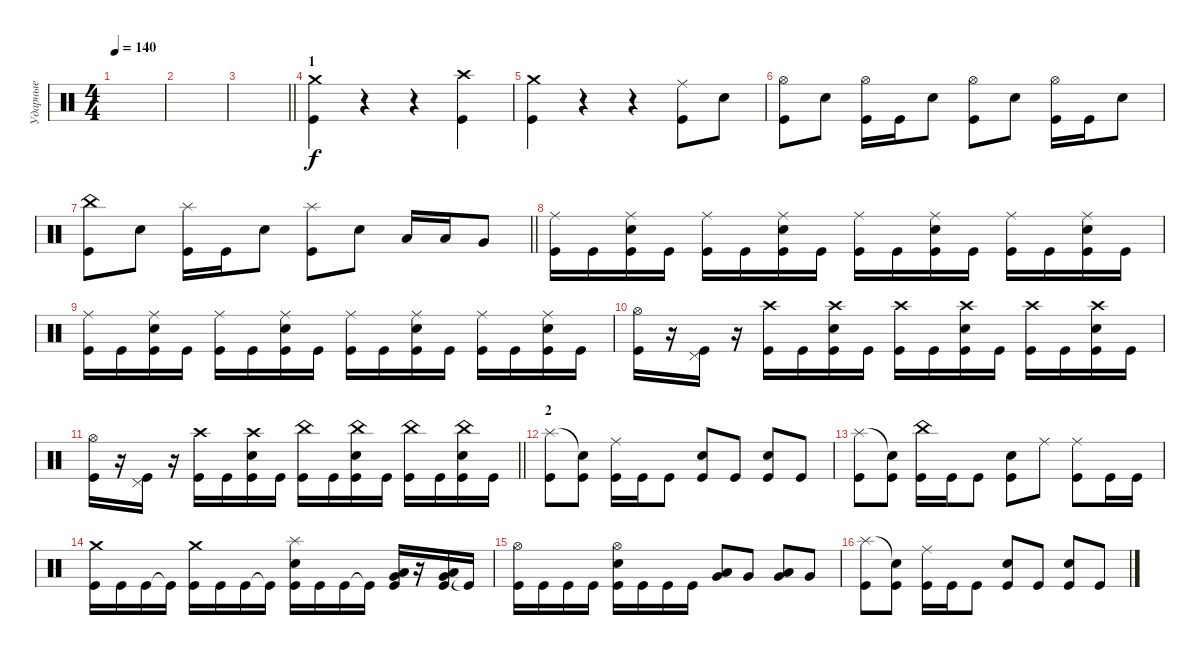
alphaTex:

\track ("Ударные" "Ударные") {instrument percussion}
\staff {score}
\articulation defaults
\ts (4 4)
\tempo 140
\clef neutral
\ks c
|
|
\barLineRight lightlight
|
\section ("" "1")
("Crash medium (hit)" "Kick (hit)").4 r.4 r.4 ("Crash high (hit)" "Kick (hit)").4 |
("Crash medium (hit)" "Kick (hit)").4 r.4 r.4 ("Ride (middle)" "Kick (hit)").8 "Electric Snare (hit)".8 |
("Hi-Hat (open)" "Kick (hit)").8 "Electric Snare (hit)".8 ("Hi-Hat (open)" "Kick (hit)").16 "Kick (hit)".16 "Electric Snare (hit)".8 ("Hi-Hat (open)" "Kick (hit)").8 "Electric Snare (hit)".8 ("Hi-Hat (open)" "Kick (hit)").16 "Kick (hit)".16 "Electric Snare (hit)".8 |
\barLineRight lightlight
("China (hit)" "Kick (hit)").8 "Electric Snare (hit)".8 ("Splash (hit)" "Kick (hit)").16 "Kick (hit)".16 "Electric Snare (hit)".8 ("Splash (hit)" "Kick (hit)").8 "Electric Snare (hit)".8 "Low Tom (hit)".16 "Low Tom (hit)".16 "Very Low Tom (hit)".8 |
("Ride (middle)" "Kick (hit)").16 "Kick (hit)".16 ("Ride (middle)" "Electric Snare (hit)" "Kick (hit)").16 "Kick (hit)".16 ("Ride (middle)" "Kick (hit)").16 "Kick (hit)".16 ("Ride (middle)" "Electric Snare (hit)" "Kick (hit)").16 "Kick (hit)".16 ("Ride (middle)" "Kick (hit)").16 "Kick (hit)".16 ("Ride (middle)" "Electric Snare (hit)" "Kick (hit)").16 "Kick (hit)".16 ("Ride (middle)" "Kick (hit)").16 "Kick (hit)".16 ("Ride (middle)" "Electric Snare (hit)" "Kick (hit)").16 "Kick (hit)".16 |
("Ride (middle)" "Kick (hit)").16 "Kick (hit)".16 ("Ride (middle)" "Electric Snare (hit)" "Kick (hit)").16 "Kick (hit)".16 ("Ride (middle)" "Kick (hit)").16 "Kick (hit)".16 ("Ride (middle)" "Electric Snare (hit)" "Kick (hit)").16 "Kick (hit)".16 ("Ride (middle)" "Kick (hit)").16 "Kick (hit)".16 ("Ride (middle)" "Electric Snare (hit)" "Kick (hit)").16 "Kick (hit)".16 ("Ride (middle)" "Kick (hit)").16 "Kick (hit)".16 ("Ride (middle)" "Electric Snare (hit)" "Kick (hit)").16 "Kick (hit)".16 |
("Hi-Hat (open)" "Kick (hit)").16 r.16 ("Pedal Hi-Hat (hit)" "Kick (hit)").16 r.16 ("Crash high (hit)" "Kick (hit)").16 "Kick (hit)".16 ("Crash high (hit)" "Electric Snare (hit)" "Kick (hit)").16 "Kick (hit)".16 ("Crash high (hit)" "Kick (hit)").16 "Kick (hit)".16 ("Crash high (hit)" "Electric Snare (hit)" "Kick (hit)").16 "Kick (hit)".16 ("Crash high (hit)" "Kick (hit)").16 "Kick (hit)".16 ("Crash high (hit)" "Electric Snare (hit)" "Kick (hit)").16 "Kick (hit)".16 |
\barLineRight lightlight
("Hi-Hat (open)" "Kick (hit)").16 r.16 ("Pedal Hi-Hat (hit)" "Kick (hit)").16 r.16 ("Crash high (hit)" "Kick (hit)").16 "Kick (hit)".16 ("Crash high (hit)" "Electric Snare (hit)" "Kick (hit)").16 "Kick (hit)".16 ("China (hit)" "Kick (hit)").16 "Kick (hit)".16 ("China (hit)" "Electric Snare (hit)" "Kick (hit)").16 "Kick (hit)".16 ("China (hit)" "Kick (hit)").16 "Kick (hit)".16 ("China (hit)" "Electric Snare (hit)" "Kick (hit)").16 "Kick (hit)".16 |
\section ("" "2")
("Splash (hit)" "Kick (hit)").8 ("Snare (hit)"{t} "Kick (hit)").8 ("Ride (middle)" "Kick (hit)").16 "Kick (hit)".16 "Kick (hit)".8 ("Electric Snare (hit)" "Kick (hit)").8 "Kick (hit)".8 ("Electric Snare (hit)" "Kick (hit)").8 "Kick (hit)".8 |
("Splash (hit)" "Kick (hit)").8 ("Snare (hit)"{t} "Kick (hit)").8 ("China (hit)" "Kick (hit)").16 "Kick (hit)".16 "Kick (hit)".8 ("Electric Snare (hit)" "Kick (hit)").8 "Ride (middle)".8 ("Ride (middle)" "Kick (hit)").8 "Kick (hit)".16 "Kick (hit)".16 |
("Crash medium (hit)" "Kick (hit)").16 "Kick (hit)".16 "Kick (hit)".16 "Kick (hit)"{t}.16 ("Crash medium (hit)" "Kick (hit)").16 "Kick (hit)".16 "Kick (hit)".16 "Kick (hit)"{t}.16 ("Splash (hit)" "Electric Snare (hit)" "Kick (hit)").16 "Kick (hit)".16 "Kick (hit)".16 "Kick (hit)"{t}.16 ("Low Tom (hit)" "Very Low Tom (hit)" "Kick (hit)").16 r.16 ("Low Tom (hit)" "Very Low Tom (hit)" "Kick (hit)").16 "Kick (hit)"{t}.16 |
("Hi-Hat (open)" "Kick (hit)").16 "Kick (hit)".16 "Kick (hit)".16 "Kick (hit)".16 ("Hi-Hat (open)" "Electric Snare (hit)" "Kick (hit)").16 "Kick (hit)".16 "Kick (hit)".16 "Kick (hit)".16 ("Very Low Tom (hit)" "Low Floor Tom (hit)").8 "Very Low Tom (hit)".8 ("Very Low Tom (hit)" "Low Floor Tom (hit)").8 "Very Low Tom (hit)".8 |
("Splash (hit)" "Kick (hit)").8 ("Snare (hit)"{t} "Kick (hit)").8 ("Ride (middle)" "Kick (hit)").16 "Kick (hit)".16 "Kick (hit)".8 ("Electric Snare (hit)" "Kick (hit)").8 "Kick (hit)".8 ("Electric Snare (hit)" "Kick (hit)").8 "Kick (hit)".8
